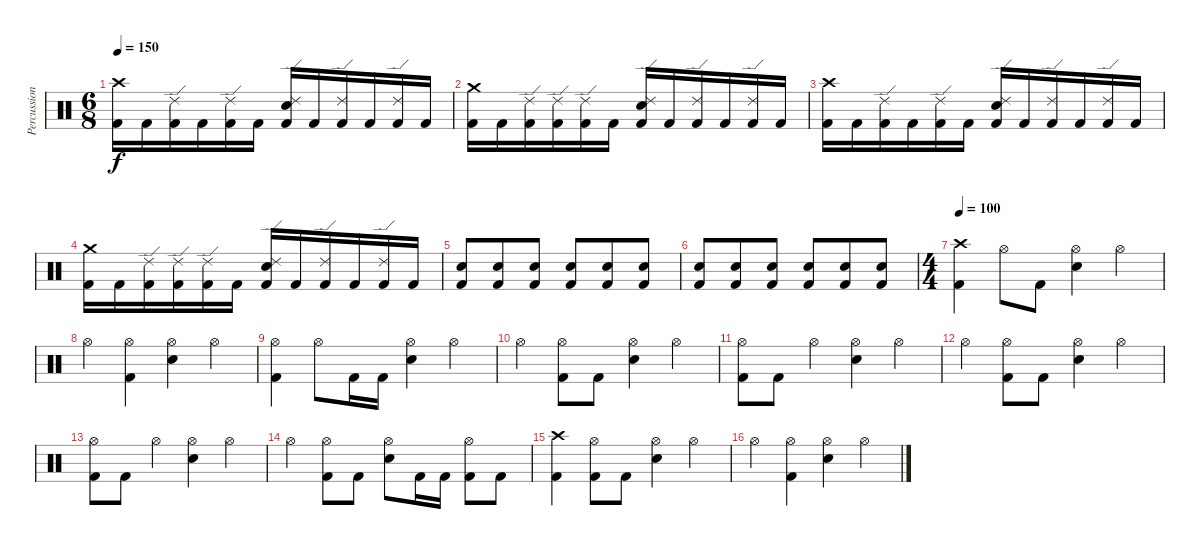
\track ("Percussion" "Percussion") {instrument percussion}
\staff {score}
\articulation defaults
\ts (6 8)
\tempo 150
\clef neutral
\ks c
("Crash high (hit)" "Kick (hit) 2").16{dy f} "Kick (hit) 2".16 ("Ride (edge) 2" "Kick (hit) 2").16 "Kick (hit) 2".16 ("Ride (edge) 2" "Kick (hit) 2").16 "Kick (hit) 2".16 ("Ride (edge) 2" "Electric Snare (hit)" "Kick (hit) 2").16 "Kick (hit) 2".16 ("Ride (edge) 2" "Kick (hit) 2").16 "Kick (hit) 2".16 ("Ride (edge) 2" "Kick (hit) 2").16 "Kick (hit) 2".16 |
("Crash medium (hit)" "Kick (hit) 2").16 "Kick (hit) 2".16 ("Ride (edge) 2" "Kick (hit) 2").16 ("Ride (edge) 2" "Kick (hit) 2").16 ("Ride (edge) 2" "Kick (hit) 2").16 "Kick (hit) 2".16 ("Ride (edge) 2" "Electric Snare (hit)" "Kick (hit) 2").16 "Kick (hit) 2".16 ("Ride (edge) 2" "Kick (hit) 2").16 "Kick (hit) 2".16 ("Ride (edge) 2" "Kick (hit) 2").16 "Kick (hit) 2".16 |
("Crash high (hit)" "Kick (hit) 2").16 "Kick (hit) 2".16 ("Ride (edge) 2" "Kick (hit) 2").16 "Kick (hit) 2".16 ("Ride (edge) 2" "Kick (hit) 2").16 "Kick (hit) 2".16 ("Ride (edge) 2" "Electric Snare (hit)" "Kick (hit) 2").16 "Kick (hit) 2".16 ("Ride (edge) 2" "Kick (hit) 2").16 "Kick (hit) 2".16 ("Ride (edge) 2" "Kick (hit) 2").16 "Kick (hit) 2".16 |
("Crash medium (hit)" "Kick (hit) 2").16 "Kick (hit) 2".16 ("Ride (edge) 2" "Kick (hit) 2").16 ("Ride (edge) 2" "Kick (hit) 2").16 ("Ride (edge) 2" "Kick (hit) 2").16 "Kick (hit) 2".16 ("Ride (edge) 2" "Electric Snare (hit)" "Kick (hit) 2").16 "Kick (hit) 2".16 ("Ride (edge) 2" "Kick (hit) 2").16 "Kick (hit) 2".16 ("Ride (edge) 2" "Kick (hit) 2").16 "Kick (hit) 2".16 |
("Electric Snare (hit)" "Kick (hit) 2").8 ("Electric Snare (hit)" "Kick (hit) 2").8 ("Electric Snare (hit)" "Kick (hit) 2").8 ("Electric Snare (hit)" "Kick (hit) 2").8 ("Electric Snare (hit)" "Kick (hit) 2").8 ("Electric Snare (hit)" "Kick (hit) 2").8 |
("Electric Snare (hit)" "Kick (hit) 2").8 ("Electric Snare (hit)" "Kick (hit) 2").8 ("Electric Snare (hit)" "Kick (hit) 2").8 ("Electric Snare (hit)" "Kick (hit) 2").8 ("Electric Snare (hit)" "Kick (hit) 2").8 ("Electric Snare (hit)" "Kick (hit) 2").8 |
\ts (4 4)
\tempo 100
("Crash high (hit)" "Kick (hit) 2").4 "Hi-Hat (open)".8 "Kick (hit) 2".8 ("Hi-Hat (open)" "Electric Snare (hit)").4 "Hi-Hat (open)".4 |
"Hi-Hat (open)".4 ("Hi-Hat (open)" "Kick (hit) 2").4 ("Hi-Hat (open)" "Electric Snare (hit)").4 "Hi-Hat (open)".4 |
("Hi-Hat (open)" "Kick (hit) 2").4 "Hi-Hat (open)".8 "Kick (hit) 2".16 "Kick (hit) 2".16 ("Hi-Hat (open)" "Electric Snare (hit)").4 "Hi-Hat (open)".4 |
"Hi-Hat (open)".4 ("Hi-Hat (open)" "Kick (hit) 2").8 "Kick (hit) 2".8 ("Hi-Hat (open)" "Electric Snare (hit)").4 "Hi-Hat (open)".4 |
("Hi-Hat (open)" "Kick (hit) 2").8 "Kick (hit) 2".8 "Hi-Hat (open)".4 ("Hi-Hat (open)" "Electric Snare (hit)").4 "Hi-Hat (open)".4 |
"Hi-Hat (open)".4 ("Hi-Hat (open)" "Kick (hit) 2").8 "Kick (hit) 2".8 ("Hi-Hat (open)" "Electric Snare (hit)").4 "Hi-Hat (open)".4 |
("Hi-Hat (open)" "Kick (hit) 2").8 "Kick (hit) 2".8 "Hi-Hat (open)".4 ("Hi-Hat (open)" "Electric Snare (hit)").4 "Hi-Hat (open)".4 |
"Hi-Hat (open)".4 ("Hi-Hat (open)" "Kick (hit) 2").8 "Kick (hit) 2".8 ("Hi-Hat (open)" "Electric Snare (hit)").8 "Kick (hit) 2".16 "Kick (hit) 2".16 ("Hi-Hat (open)" "Kick (hit) 2").8 "Kick (hit) 2".8 |
("Crash high (hit)" "Kick (hit) 2").4 ("Hi-Hat (open)" "Kick (hit) 2").8 "Kick (hit) 2".8 ("Hi-Hat (open)" "Electric Snare (hit)").4 "Hi-Hat (open)".4 |
"Hi-Hat (open)".4 ("Hi-Hat (open)" "Kick (hit) 2").4 ("Hi-Hat (open)" "Electric Snare (hit)").4 "Hi-Hat (open)".4
